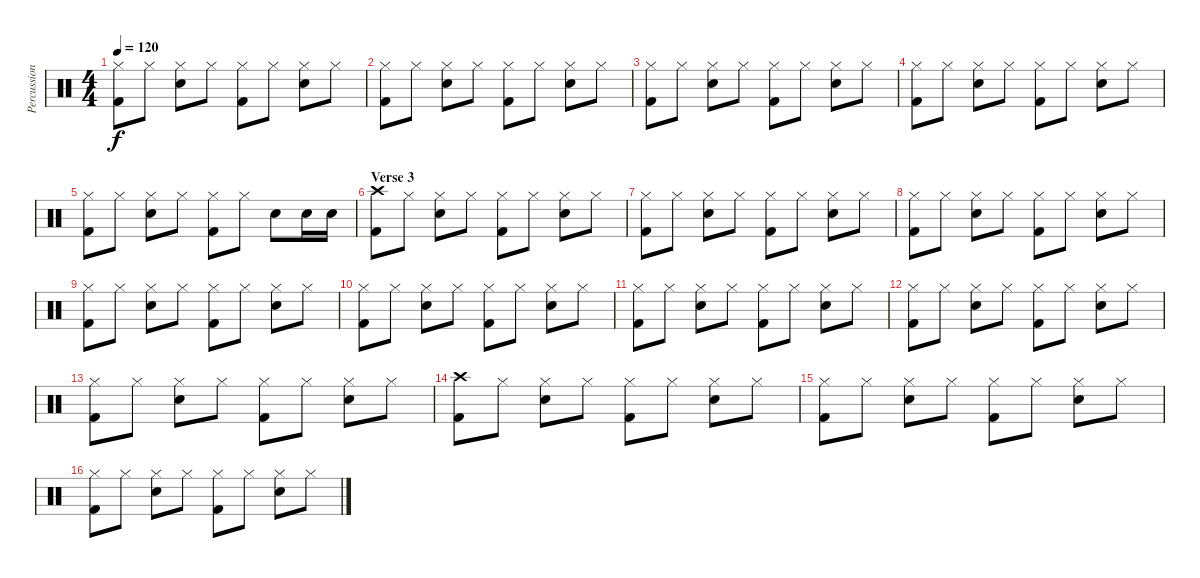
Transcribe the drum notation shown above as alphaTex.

\track ("Percussion" "Percussion") {instrument percussion}
\staff {score}
\articulation defaults
\ts (4 4)
\tempo 120
\clef neutral
\ks c
("Hi-Hat (closed)" "Kick (hit) 2").8{dy f} "Hi-Hat (closed)".8 ("Hi-Hat (closed)" "Electric Snare (hit)").8 "Hi-Hat (closed)".8 ("Hi-Hat (closed)" "Kick (hit) 2").8 "Hi-Hat (closed)".8 ("Hi-Hat (closed)" "Electric Snare (hit)").8 "Hi-Hat (closed)".8 |
("Hi-Hat (closed)" "Kick (hit) 2").8 "Hi-Hat (closed)".8 ("Hi-Hat (closed)" "Electric Snare (hit)").8 "Hi-Hat (closed)".8 ("Hi-Hat (closed)" "Kick (hit) 2").8 "Hi-Hat (closed)".8 ("Hi-Hat (closed)" "Electric Snare (hit)").8 "Hi-Hat (closed)".8 |
("Hi-Hat (closed)" "Kick (hit) 2").8 "Hi-Hat (closed)".8 ("Hi-Hat (closed)" "Electric Snare (hit)").8 "Hi-Hat (closed)".8 ("Hi-Hat (closed)" "Kick (hit) 2").8 "Hi-Hat (closed)".8 ("Hi-Hat (closed)" "Electric Snare (hit)").8 "Hi-Hat (closed)".8 |
("Hi-Hat (closed)" "Kick (hit) 2").8 "Hi-Hat (closed)".8 ("Hi-Hat (closed)" "Electric Snare (hit)").8 "Hi-Hat (closed)".8 ("Hi-Hat (closed)" "Kick (hit) 2").8 "Hi-Hat (closed)".8 ("Hi-Hat (closed)" "Electric Snare (hit)").8 "Hi-Hat (closed)".8 |
("Hi-Hat (closed)" "Kick (hit) 2").8 "Hi-Hat (closed)".8 ("Hi-Hat (closed)" "Electric Snare (hit)").8 "Hi-Hat (closed)".8 ("Hi-Hat (closed)" "Kick (hit) 2").8 "Hi-Hat (closed)".8 "Electric Snare (hit)".8 "Electric Snare (hit)".16 "Electric Snare (hit)".16 |
\section ("" "Verse 3")
("Crash high (hit)" "Kick (hit) 2").8 "Hi-Hat (closed)".8 ("Hi-Hat (closed)" "Electric Snare (hit)").8 "Hi-Hat (closed)".8 ("Hi-Hat (closed)" "Kick (hit) 2").8 "Hi-Hat (closed)".8 ("Hi-Hat (closed)" "Electric Snare (hit)").8 "Hi-Hat (closed)".8 |
("Hi-Hat (closed)" "Kick (hit) 2").8 "Hi-Hat (closed)".8 ("Hi-Hat (closed)" "Electric Snare (hit)").8 "Hi-Hat (closed)".8 ("Hi-Hat (closed)" "Kick (hit) 2").8 "Hi-Hat (closed)".8 ("Hi-Hat (closed)" "Electric Snare (hit)").8 "Hi-Hat (closed)".8 |
("Hi-Hat (closed)" "Kick (hit) 2").8 "Hi-Hat (closed)".8 ("Hi-Hat (closed)" "Electric Snare (hit)").8 "Hi-Hat (closed)".8 ("Hi-Hat (closed)" "Kick (hit) 2").8 "Hi-Hat (closed)".8 ("Hi-Hat (closed)" "Electric Snare (hit)").8 "Hi-Hat (closed)".8 |
("Hi-Hat (closed)" "Kick (hit) 2").8 "Hi-Hat (closed)".8 ("Hi-Hat (closed)" "Electric Snare (hit)").8 "Hi-Hat (closed)".8 ("Hi-Hat (closed)" "Kick (hit) 2").8 "Hi-Hat (closed)".8 ("Hi-Hat (closed)" "Electric Snare (hit)").8 "Hi-Hat (closed)".8 |
("Hi-Hat (closed)" "Kick (hit) 2").8 "Hi-Hat (closed)".8 ("Hi-Hat (closed)" "Electric Snare (hit)").8 "Hi-Hat (closed)".8 ("Hi-Hat (closed)" "Kick (hit) 2").8 "Hi-Hat (closed)".8 ("Hi-Hat (closed)" "Electric Snare (hit)").8 "Hi-Hat (closed)".8 |
("Hi-Hat (closed)" "Kick (hit) 2").8 "Hi-Hat (closed)".8 ("Hi-Hat (closed)" "Electric Snare (hit)").8 "Hi-Hat (closed)".8 ("Hi-Hat (closed)" "Kick (hit) 2").8 "Hi-Hat (closed)".8 ("Hi-Hat (closed)" "Electric Snare (hit)").8 "Hi-Hat (closed)".8 |
("Hi-Hat (closed)" "Kick (hit) 2").8 "Hi-Hat (closed)".8 ("Hi-Hat (closed)" "Electric Snare (hit)").8 "Hi-Hat (closed)".8 ("Hi-Hat (closed)" "Kick (hit) 2").8 "Hi-Hat (closed)".8 ("Hi-Hat (closed)" "Electric Snare (hit)").8 "Hi-Hat (closed)".8 |
("Hi-Hat (closed)" "Kick (hit) 2").8 "Hi-Hat (closed)".8 ("Hi-Hat (closed)" "Electric Snare (hit)").8 "Hi-Hat (closed)".8 ("Hi-Hat (closed)" "Kick (hit) 2").8 "Hi-Hat (closed)".8 ("Hi-Hat (closed)" "Electric Snare (hit)").8 "Hi-Hat (closed)".8 |
("Crash high (hit)" "Kick (hit) 2").8 "Hi-Hat (closed)".8 ("Hi-Hat (closed)" "Electric Snare (hit)").8 "Hi-Hat (closed)".8 ("Hi-Hat (closed)" "Kick (hit) 2").8 "Hi-Hat (closed)".8 ("Hi-Hat (closed)" "Electric Snare (hit)").8 "Hi-Hat (closed)".8 |
("Hi-Hat (closed)" "Kick (hit) 2").8 "Hi-Hat (closed)".8 ("Hi-Hat (closed)" "Electric Snare (hit)").8 "Hi-Hat (closed)".8 ("Hi-Hat (closed)" "Kick (hit) 2").8 "Hi-Hat (closed)".8 ("Hi-Hat (closed)" "Electric Snare (hit)").8 "Hi-Hat (closed)".8 |
("Hi-Hat (closed)" "Kick (hit) 2").8 "Hi-Hat (closed)".8 ("Hi-Hat (closed)" "Electric Snare (hit)").8 "Hi-Hat (closed)".8 ("Hi-Hat (closed)" "Kick (hit) 2").8 "Hi-Hat (closed)".8 ("Hi-Hat (closed)" "Electric Snare (hit)").8 "Hi-Hat (closed)".8
